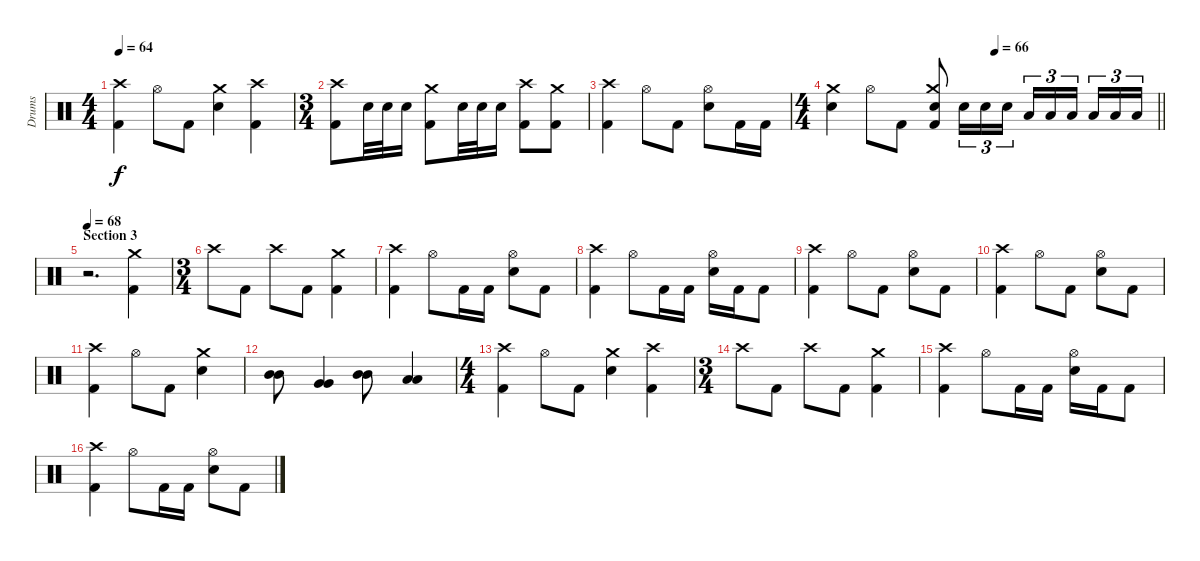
\track ("Drums" "Drums") {instrument percussion}
\staff {score}
\articulation defaults
\ts (4 4)
\tempo 64
\clef neutral
\ks c
("Crash high (hit)" "Kick (hit) 2").4{dy f} "Hi-Hat (open)".8 "Kick (hit) 2".8 ("Crash medium (hit)" "Electric Snare (hit)").4 ("Crash high (hit)" "Kick (hit) 2").4 |
\ts (3 4)
("Crash high (hit)" "Kick (hit) 2").8 "Electric Snare (hit)".32 "Electric Snare (hit)".32 "Electric Snare (hit)".16 ("Crash medium (hit)" "Kick (hit) 2").8 "Electric Snare (hit)".32 "Electric Snare (hit)".32 "Electric Snare (hit)".16 ("Crash high (hit)" "Kick (hit) 2").8 ("Crash medium (hit)" "Kick (hit) 2").8 |
("Crash high (hit)" "Kick (hit) 2").4 "Hi-Hat (open)".8 "Kick (hit) 2".8 ("Hi-Hat (open)" "Electric Snare (hit)").8 "Kick (hit) 2".16 "Kick (hit) 2".16 |
\ts (4 4)
\tempo (66 0.5)
\barLineRight lightlight
("Crash medium (hit)" "Electric Snare (hit)").4 "Hi-Hat (open)".8 "Kick (hit) 2".8 ("Crash medium (hit)" "Electric Snare (hit)" "Kick (hit) 2").8 "Electric Snare (hit)".16{tu (3 2)} "Electric Snare (hit)".16{tu (3 2)} "Electric Snare (hit)".16{tu (3 2)} "Low Tom (hit)".16{tu (3 2)} "Low Tom (hit)".16{tu (3 2)} "Low Tom (hit)".16{tu (3 2) beam splitsecondary} "Low Floor Tom (hit)".16{tu (3 2)} "Low Floor Tom (hit)".16{tu (3 2)} "Low Floor Tom (hit)".16{tu (3 2)} |
\section ("" "Section 3")
\tempo 68
r.2{d} ("Crash medium (hit)" "Kick (hit) 2").4 |
\ts (3 4)
"Crash high (hit)".8 "Kick (hit) 2".8 "Crash high (hit)".8 "Kick (hit) 2".8 ("Crash medium (hit)" "Kick (hit) 2").4 |
("Crash high (hit)" "Kick (hit) 2").4 "Hi-Hat (open)".8 "Kick (hit) 2".16 "Kick (hit) 2".16 ("Hi-Hat (open)" "Electric Snare (hit)").8 "Kick (hit) 2".8 |
("Crash high (hit)" "Kick (hit) 2").4 "Hi-Hat (open)".8 "Kick (hit) 2".16 "Kick (hit) 2".16 ("Hi-Hat (open)" "Electric Snare (hit)").16 "Kick (hit) 2".16 "Kick (hit) 2".8 |
("Crash high (hit)" "Kick (hit) 2").4 "Hi-Hat (open)".8 "Kick (hit) 2".8 ("Hi-Hat (open)" "Electric Snare (hit)").8 "Kick (hit) 2".8 |
("Crash high (hit)" "Kick (hit) 2").4 "Hi-Hat (open)".8 "Kick (hit) 2".8 ("Hi-Hat (open)" "Electric Snare (hit)").8 "Kick (hit) 2".8 |
("Crash high (hit)" "Kick (hit) 2").4 "Hi-Hat (open)".8 "Kick (hit) 2".8 ("Crash medium (hit)" "Electric Snare (hit)").4 |
("Mid Tom (hit)" "Mid Tom (hit)").8 ("Very Low Tom (hit)" "Very Low Tom (hit)").4 ("Mid Tom (hit)" "Mid Tom (hit)").8 ("Low Tom (hit)" "Low Tom (hit)").4 |
\ts (4 4)
("Crash high (hit)" "Kick (hit) 2").4 "Hi-Hat (open)".8 "Kick (hit) 2".8 ("Crash medium (hit)" "Electric Snare (hit)").4 ("Crash high (hit)" "Kick (hit) 2").4 |
\ts (3 4)
"Crash high (hit)".8 "Kick (hit) 2".8 "Crash high (hit)".8 "Kick (hit) 2".8 ("Crash medium (hit)" "Kick (hit) 2").4 |
("Crash high (hit)" "Kick (hit) 2").4 "Hi-Hat (open)".8 "Kick (hit) 2".16 "Kick (hit) 2".16 ("Hi-Hat (open)" "Electric Snare (hit)").16 "Kick (hit) 2".16 "Kick (hit) 2".8 |
("Crash high (hit)" "Kick (hit) 2").4 "Hi-Hat (open)".8 "Kick (hit) 2".16 "Kick (hit) 2".16 ("Hi-Hat (open)" "Electric Snare (hit)").8 "Kick (hit) 2".8
